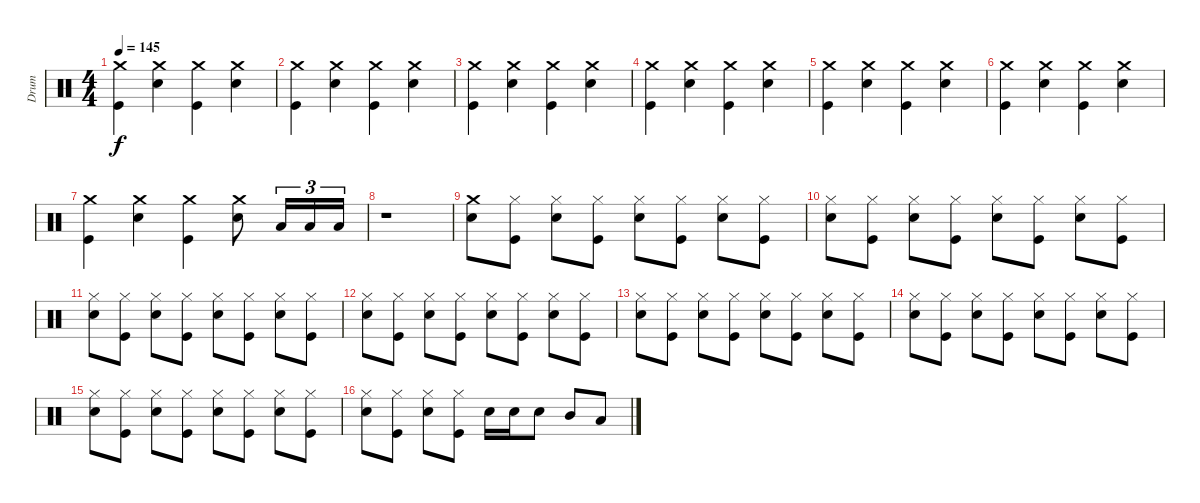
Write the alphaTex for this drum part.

\track ("Drum" "Drum") {instrument percussion}
\staff {score}
\articulation defaults
\ts (4 4)
\tempo 145
\clef neutral
\ks c
("Kick (hit)" "Crash medium (hit)").4{dy f} ("Electric Snare (hit)" "Crash medium (hit)").4 ("Kick (hit)" "Crash medium (hit)").4 ("Electric Snare (hit)" "Crash medium (hit)").4 |
("Kick (hit)" "Crash medium (hit)").4 ("Electric Snare (hit)" "Crash medium (hit)").4 ("Kick (hit)" "Crash medium (hit)").4 ("Electric Snare (hit)" "Crash medium (hit)").4 |
("Kick (hit)" "Crash medium (hit)").4 ("Electric Snare (hit)" "Crash medium (hit)").4 ("Kick (hit)" "Crash medium (hit)").4 ("Electric Snare (hit)" "Crash medium (hit)").4 |
("Kick (hit)" "Crash medium (hit)").4 ("Electric Snare (hit)" "Crash medium (hit)").4 ("Kick (hit)" "Crash medium (hit)").4 ("Electric Snare (hit)" "Crash medium (hit)").4 |
("Kick (hit)" "Crash medium (hit)").4 ("Electric Snare (hit)" "Crash medium (hit)").4 ("Kick (hit)" "Crash medium (hit)").4 ("Electric Snare (hit)" "Crash medium (hit)").4 |
("Kick (hit)" "Crash medium (hit)").4 ("Electric Snare (hit)" "Crash medium (hit)").4 ("Kick (hit)" "Crash medium (hit)").4 ("Electric Snare (hit)" "Crash medium (hit)").4 |
("Kick (hit)" "Crash medium (hit)").4 ("Electric Snare (hit)" "Crash medium (hit)").4 ("Kick (hit)" "Crash medium (hit)").4 ("Electric Snare (hit)" "Crash medium (hit)").8 "Low Tom (hit)".16{tu (3 2)} "Low Tom (hit)".16{tu (3 2)} "Low Tom (hit)".16{tu (3 2)} |
r.1 |
("Electric Snare (hit)" "Crash medium (hit)").8 ("Kick (hit)" "Hi-Hat (closed)").8 ("Electric Snare (hit)" "Hi-Hat (closed)").8 ("Kick (hit)" "Hi-Hat (closed)").8 ("Electric Snare (hit)" "Hi-Hat (closed)").8 ("Kick (hit)" "Hi-Hat (closed)").8 ("Electric Snare (hit)" "Hi-Hat (closed)").8 ("Kick (hit)" "Hi-Hat (closed)").8 |
("Electric Snare (hit)" "Hi-Hat (closed)").8 ("Kick (hit)" "Hi-Hat (closed)").8 ("Electric Snare (hit)" "Hi-Hat (closed)").8 ("Kick (hit)" "Hi-Hat (closed)").8 ("Electric Snare (hit)" "Hi-Hat (closed)").8 ("Kick (hit)" "Hi-Hat (closed)").8 ("Electric Snare (hit)" "Hi-Hat (closed)").8 ("Kick (hit)" "Hi-Hat (closed)").8 |
("Electric Snare (hit)" "Hi-Hat (closed)").8 ("Kick (hit)" "Hi-Hat (closed)").8 ("Electric Snare (hit)" "Hi-Hat (closed)").8 ("Kick (hit)" "Hi-Hat (closed)").8 ("Electric Snare (hit)" "Hi-Hat (closed)").8 ("Kick (hit)" "Hi-Hat (closed)").8 ("Electric Snare (hit)" "Hi-Hat (closed)").8 ("Kick (hit)" "Hi-Hat (closed)").8 |
("Electric Snare (hit)" "Hi-Hat (closed)").8 ("Kick (hit)" "Hi-Hat (closed)").8 ("Electric Snare (hit)" "Hi-Hat (closed)").8 ("Kick (hit)" "Hi-Hat (closed)").8 ("Electric Snare (hit)" "Hi-Hat (closed)").8 ("Kick (hit)" "Hi-Hat (closed)").8 ("Electric Snare (hit)" "Hi-Hat (closed)").8 ("Kick (hit)" "Hi-Hat (closed)").8 |
("Electric Snare (hit)" "Hi-Hat (closed)").8 ("Kick (hit)" "Hi-Hat (closed)").8 ("Electric Snare (hit)" "Hi-Hat (closed)").8 ("Kick (hit)" "Hi-Hat (closed)").8 ("Electric Snare (hit)" "Hi-Hat (closed)").8 ("Kick (hit)" "Hi-Hat (closed)").8 ("Electric Snare (hit)" "Hi-Hat (closed)").8 ("Kick (hit)" "Hi-Hat (closed)").8 |
("Electric Snare (hit)" "Hi-Hat (closed)").8 ("Kick (hit)" "Hi-Hat (closed)").8 ("Electric Snare (hit)" "Hi-Hat (closed)").8 ("Kick (hit)" "Hi-Hat (closed)").8 ("Electric Snare (hit)" "Hi-Hat (closed)").8 ("Kick (hit)" "Hi-Hat (closed)").8 ("Electric Snare (hit)" "Hi-Hat (closed)").8 ("Kick (hit)" "Hi-Hat (closed)").8 |
("Electric Snare (hit)" "Hi-Hat (closed)").8 ("Kick (hit)" "Hi-Hat (closed)").8 ("Electric Snare (hit)" "Hi-Hat (closed)").8 ("Kick (hit)" "Hi-Hat (closed)").8 ("Electric Snare (hit)" "Hi-Hat (closed)").8 ("Kick (hit)" "Hi-Hat (closed)").8 ("Electric Snare (hit)" "Hi-Hat (closed)").8 ("Kick (hit)" "Hi-Hat (closed)").8 |
("Electric Snare (hit)" "Hi-Hat (closed)").8 ("Kick (hit)" "Hi-Hat (closed)").8 ("Electric Snare (hit)" "Hi-Hat (closed)").8 ("Kick (hit)" "Hi-Hat (closed)").8 "Electric Snare (hit)".16 "Electric Snare (hit)".16 "Electric Snare (hit)".8 "Mid Tom (hit)".8 "Low Tom (hit)".8
